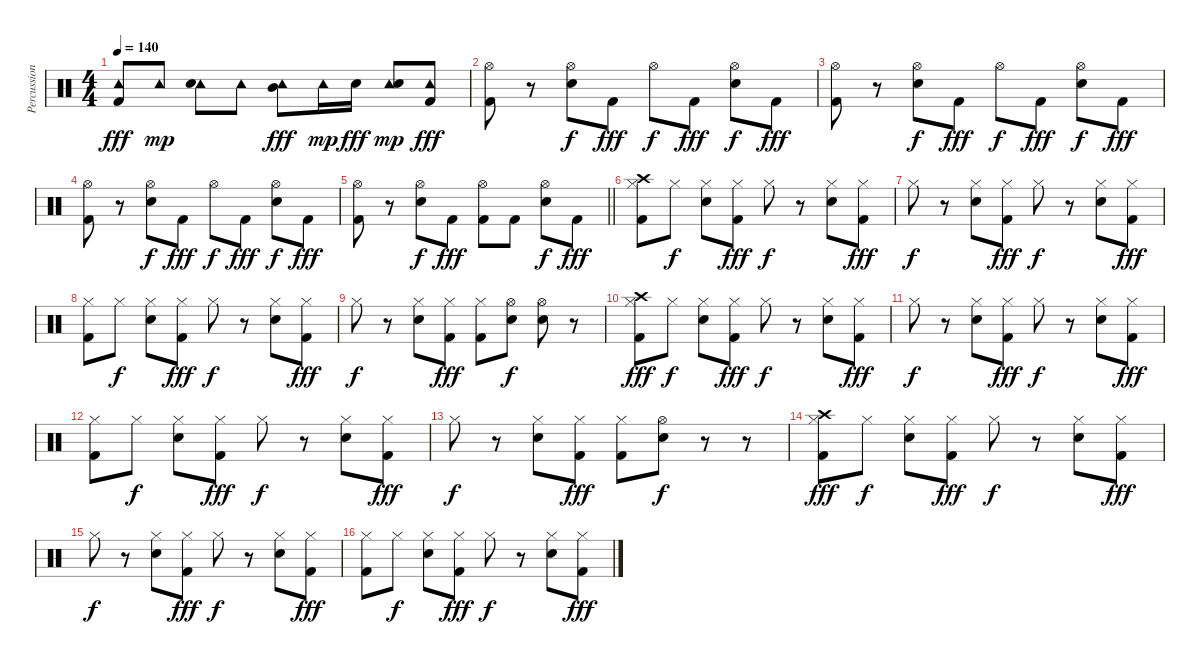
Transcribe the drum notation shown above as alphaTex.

\track ("Percussion" "Percussion") {instrument percussion}
\staff {score}
\articulation defaults
\ts (4 4)
\tempo 140
\clef neutral
\ks c
("Tambourine (hit)" "Kick (hit) 2").8{dy fff} "Tambourine (hit)".8{dy mp} ("Tambourine (hit)" "Electric Snare (hit)").8 "Tambourine (hit)".8 ("Tambourine (hit)" "Mid Tom (hit)").8{dy fff} "Tambourine (hit)".16{dy mp} "Electric Snare (hit)".16{dy fff} ("Tambourine (hit)" "Electric Snare (hit)").8{dy mp} ("Tambourine (hit)" "Kick (hit) 2").8{dy fff} |
("Hi-Hat (open)" "Kick (hit) 2").8 r.8 ("Hi-Hat (open)" "Electric Snare (hit)").8{dy f} "Kick (hit) 2".8{dy fff} "Hi-Hat (open)".8{dy f} "Kick (hit) 2".8{dy fff} ("Hi-Hat (open)" "Electric Snare (hit)").8{dy f} "Kick (hit) 2".8{dy fff} |
("Hi-Hat (open)" "Kick (hit) 2").8 r.8 ("Hi-Hat (open)" "Electric Snare (hit)").8{dy f} "Kick (hit) 2".8{dy fff} "Hi-Hat (open)".8{dy f} "Kick (hit) 2".8{dy fff} ("Hi-Hat (open)" "Electric Snare (hit)").8{dy f} "Kick (hit) 2".8{dy fff} |
("Hi-Hat (open)" "Kick (hit) 2").8 r.8 ("Hi-Hat (open)" "Electric Snare (hit)").8{dy f} "Kick (hit) 2".8{dy fff} "Hi-Hat (open)".8{dy f} "Kick (hit) 2".8{dy fff} ("Hi-Hat (open)" "Electric Snare (hit)").8{dy f} "Kick (hit) 2".8{dy fff} |
\barLineRight lightlight
("Hi-Hat (open)" "Kick (hit) 2").8 r.8 ("Hi-Hat (open)" "Electric Snare (hit)").8{dy f} "Kick (hit) 2".8{dy fff} ("Hi-Hat (open)" "Kick (hit) 2").8 "Kick (hit) 2".8 ("Hi-Hat (open)" "Electric Snare (hit)").8{dy f} "Kick (hit) 2".8{dy fff} |
("Hi-Hat (closed)" "Kick (hit) 2" "Crash high (hit)").8 "Hi-Hat (closed)".8{dy f} ("Hi-Hat (closed)" "Electric Snare (hit)").8 ("Hi-Hat (closed)" "Kick (hit) 2").8{dy fff} "Hi-Hat (closed)".8{dy f} r.8 ("Hi-Hat (closed)" "Electric Snare (hit)").8 ("Hi-Hat (closed)" "Kick (hit) 2").8{dy fff} |
"Hi-Hat (closed)".8{dy f} r.8 ("Hi-Hat (closed)" "Electric Snare (hit)").8 ("Hi-Hat (closed)" "Kick (hit) 2").8{dy fff} "Hi-Hat (closed)".8{dy f} r.8 ("Hi-Hat (closed)" "Electric Snare (hit)").8 ("Hi-Hat (closed)" "Kick (hit) 2").8{dy fff} |
("Hi-Hat (closed)" "Kick (hit) 2").8 "Hi-Hat (closed)".8{dy f} ("Hi-Hat (closed)" "Electric Snare (hit)").8 ("Hi-Hat (closed)" "Kick (hit) 2").8{dy fff} "Hi-Hat (closed)".8{dy f} r.8 ("Hi-Hat (closed)" "Electric Snare (hit)").8 ("Hi-Hat (closed)" "Kick (hit) 2").8{dy fff} |
"Hi-Hat (closed)".8{dy f} r.8 ("Hi-Hat (closed)" "Electric Snare (hit)").8 ("Hi-Hat (closed)" "Kick (hit) 2").8{dy fff} ("Hi-Hat (closed)" "Kick (hit) 2").8 ("Hi-Hat (open)" "Electric Snare (hit)").8{dy f} ("Hi-Hat (open)" "Electric Snare (hit)").8 r.8 |
("Hi-Hat (closed)" "Kick (hit) 2" "Crash high (hit)").8{dy fff} "Hi-Hat (closed)".8{dy f} ("Hi-Hat (closed)" "Electric Snare (hit)").8 ("Hi-Hat (closed)" "Kick (hit) 2").8{dy fff} "Hi-Hat (closed)".8{dy f} r.8 ("Hi-Hat (closed)" "Electric Snare (hit)").8 ("Hi-Hat (closed)" "Kick (hit) 2").8{dy fff} |
"Hi-Hat (closed)".8{dy f} r.8 ("Hi-Hat (closed)" "Electric Snare (hit)").8 ("Hi-Hat (closed)" "Kick (hit) 2").8{dy fff} "Hi-Hat (closed)".8{dy f} r.8 ("Hi-Hat (closed)" "Electric Snare (hit)").8 ("Hi-Hat (closed)" "Kick (hit) 2").8{dy fff} |
("Hi-Hat (closed)" "Kick (hit) 2").8 "Hi-Hat (closed)".8{dy f} ("Hi-Hat (closed)" "Electric Snare (hit)").8 ("Hi-Hat (closed)" "Kick (hit) 2").8{dy fff} "Hi-Hat (closed)".8{dy f} r.8 ("Hi-Hat (closed)" "Electric Snare (hit)").8 ("Hi-Hat (closed)" "Kick (hit) 2").8{dy fff} |
"Hi-Hat (closed)".8{dy f} r.8 ("Hi-Hat (closed)" "Electric Snare (hit)").8 ("Hi-Hat (closed)" "Kick (hit) 2").8{dy fff} ("Hi-Hat (closed)" "Kick (hit) 2").8 ("Hi-Hat (open)" "Electric Snare (hit)").8{dy f} r.8 r.8 |
("Hi-Hat (closed)" "Kick (hit) 2" "Crash high (hit)").8{dy fff} "Hi-Hat (closed)".8{dy f} ("Hi-Hat (closed)" "Electric Snare (hit)").8 ("Hi-Hat (closed)" "Kick (hit) 2").8{dy fff} "Hi-Hat (closed)".8{dy f} r.8 ("Hi-Hat (closed)" "Electric Snare (hit)").8 ("Hi-Hat (closed)" "Kick (hit) 2").8{dy fff} |
"Hi-Hat (closed)".8{dy f} r.8 ("Hi-Hat (closed)" "Electric Snare (hit)").8 ("Hi-Hat (closed)" "Kick (hit) 2").8{dy fff} "Hi-Hat (closed)".8{dy f} r.8 ("Hi-Hat (closed)" "Electric Snare (hit)").8 ("Hi-Hat (closed)" "Kick (hit) 2").8{dy fff} |
("Hi-Hat (closed)" "Kick (hit) 2").8 "Hi-Hat (closed)".8{dy f} ("Hi-Hat (closed)" "Electric Snare (hit)").8 ("Hi-Hat (closed)" "Kick (hit) 2").8{dy fff} "Hi-Hat (closed)".8{dy f} r.8 ("Hi-Hat (closed)" "Electric Snare (hit)").8 ("Hi-Hat (closed)" "Kick (hit) 2").8{dy fff}
